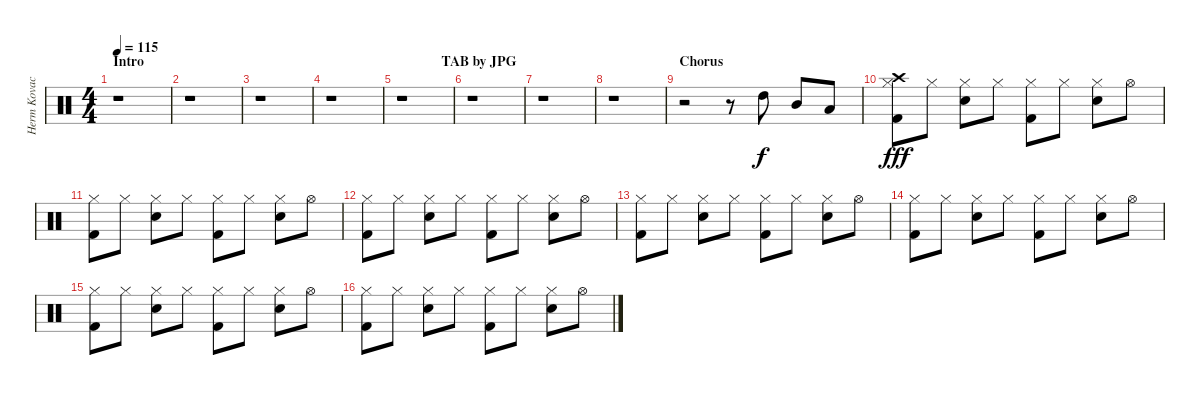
\track ("Herm Kovacs" "Herm Kovac") {instrument percussion}
\staff {score}
\articulation defaults
\ts (4 4)
\section ("" "Intro                                                                                     TAB by JPG")
\tempo 115
\clef neutral
\ks c
r.1{dy f} |
r.1 |
r.1 |
r.1 |
r.1 |
r.1 |
r.1 |
r.1 |
\section ("" "Chorus")
r.2 r.8 "High Tom (hit)".8 "Mid Tom (hit)".8 "Low Tom (hit)".8 |
("Crash high (hit)" "Hi-Hat (closed)" "Kick (hit) 2").8{dy fff} "Hi-Hat (closed)".8 ("Hi-Hat (closed)" "Electric Snare (hit)").8 "Hi-Hat (closed)".8 ("Hi-Hat (closed)" "Kick (hit) 2").8 "Hi-Hat (closed)".8 ("Hi-Hat (closed)" "Electric Snare (hit)").8 "Hi-Hat (open)".8 |
("Hi-Hat (closed)" "Kick (hit) 2").8 "Hi-Hat (closed)".8 ("Hi-Hat (closed)" "Electric Snare (hit)").8 "Hi-Hat (closed)".8 ("Hi-Hat (closed)" "Kick (hit) 2").8 "Hi-Hat (closed)".8 ("Hi-Hat (closed)" "Electric Snare (hit)").8 "Hi-Hat (open)".8 |
("Hi-Hat (closed)" "Kick (hit) 2").8 "Hi-Hat (closed)".8 ("Hi-Hat (closed)" "Electric Snare (hit)").8 "Hi-Hat (closed)".8 ("Hi-Hat (closed)" "Kick (hit) 2").8 "Hi-Hat (closed)".8 ("Hi-Hat (closed)" "Electric Snare (hit)").8 "Hi-Hat (open)".8 |
("Hi-Hat (closed)" "Kick (hit) 2").8 "Hi-Hat (closed)".8 ("Hi-Hat (closed)" "Electric Snare (hit)").8 "Hi-Hat (closed)".8 ("Hi-Hat (closed)" "Kick (hit) 2").8 "Hi-Hat (closed)".8 ("Hi-Hat (closed)" "Electric Snare (hit)").8 "Hi-Hat (open)".8 |
("Hi-Hat (closed)" "Kick (hit) 2").8 "Hi-Hat (closed)".8 ("Hi-Hat (closed)" "Electric Snare (hit)").8 "Hi-Hat (closed)".8 ("Hi-Hat (closed)" "Kick (hit) 2").8 "Hi-Hat (closed)".8 ("Hi-Hat (closed)" "Electric Snare (hit)").8 "Hi-Hat (open)".8 |
("Hi-Hat (closed)" "Kick (hit) 2").8 "Hi-Hat (closed)".8 ("Hi-Hat (closed)" "Electric Snare (hit)").8 "Hi-Hat (closed)".8 ("Hi-Hat (closed)" "Kick (hit) 2").8 "Hi-Hat (closed)".8 ("Hi-Hat (closed)" "Electric Snare (hit)").8 "Hi-Hat (open)".8 |
("Hi-Hat (closed)" "Kick (hit) 2").8 "Hi-Hat (closed)".8 ("Hi-Hat (closed)" "Electric Snare (hit)").8 "Hi-Hat (closed)".8 ("Hi-Hat (closed)" "Kick (hit) 2").8 "Hi-Hat (closed)".8 ("Hi-Hat (closed)" "Electric Snare (hit)").8 "Hi-Hat (open)".8
